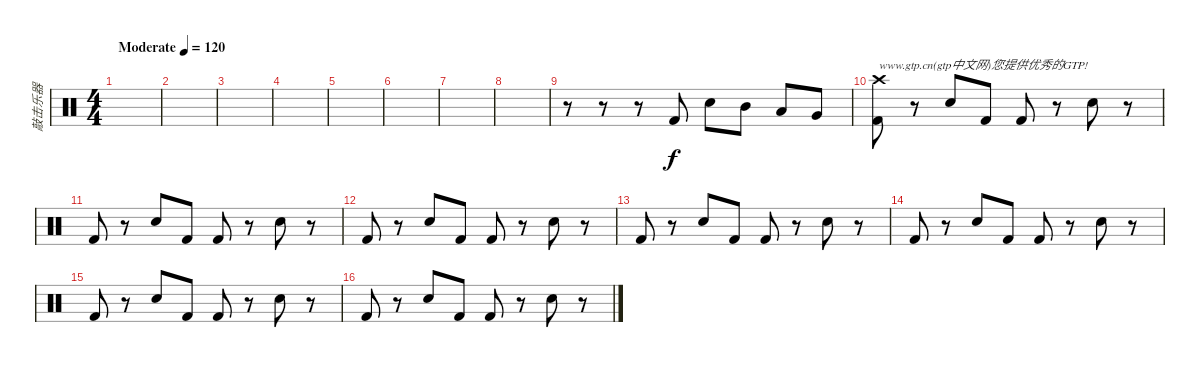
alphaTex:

\track ("敲击乐器" "敲击乐器") {instrument percussion}
\staff {score}
\articulation defaults
\ts (4 4)
\tempo (120 "Moderate")
\clef neutral
\ks c
|
|
|
|
|
|
|
|
r.8 r.8 r.8 "Kick (hit) 2".8 "Electric Snare (hit)".8 "Mid Tom (hit)".8 "Low Tom (hit)".8 "Very Low Tom (hit)".8 |
("Crash high (hit)" "Kick (hit) 2").8{txt "www.gtp.cn(gtp中文网)您提供优秀的GTP!"} r.8 "Electric Snare (hit)".8 "Kick (hit) 2".8 "Kick (hit) 2".8 r.8 "Electric Snare (hit)".8 r.8 |
"Kick (hit) 2".8 r.8 "Electric Snare (hit)".8 "Kick (hit) 2".8 "Kick (hit) 2".8 r.8 "Electric Snare (hit)".8 r.8 |
"Kick (hit) 2".8 r.8 "Electric Snare (hit)".8 "Kick (hit) 2".8 "Kick (hit) 2".8 r.8 "Electric Snare (hit)".8 r.8 |
"Kick (hit) 2".8 r.8 "Electric Snare (hit)".8 "Kick (hit) 2".8 "Kick (hit) 2".8 r.8 "Electric Snare (hit)".8 r.8 |
"Kick (hit) 2".8 r.8 "Electric Snare (hit)".8 "Kick (hit) 2".8 "Kick (hit) 2".8 r.8 "Electric Snare (hit)".8 r.8 |
"Kick (hit) 2".8 r.8 "Electric Snare (hit)".8 "Kick (hit) 2".8 "Kick (hit) 2".8 r.8 "Electric Snare (hit)".8 r.8 |
"Kick (hit) 2".8 r.8 "Electric Snare (hit)".8 "Kick (hit) 2".8 "Kick (hit) 2".8 r.8 "Electric Snare (hit)".8 r.8
